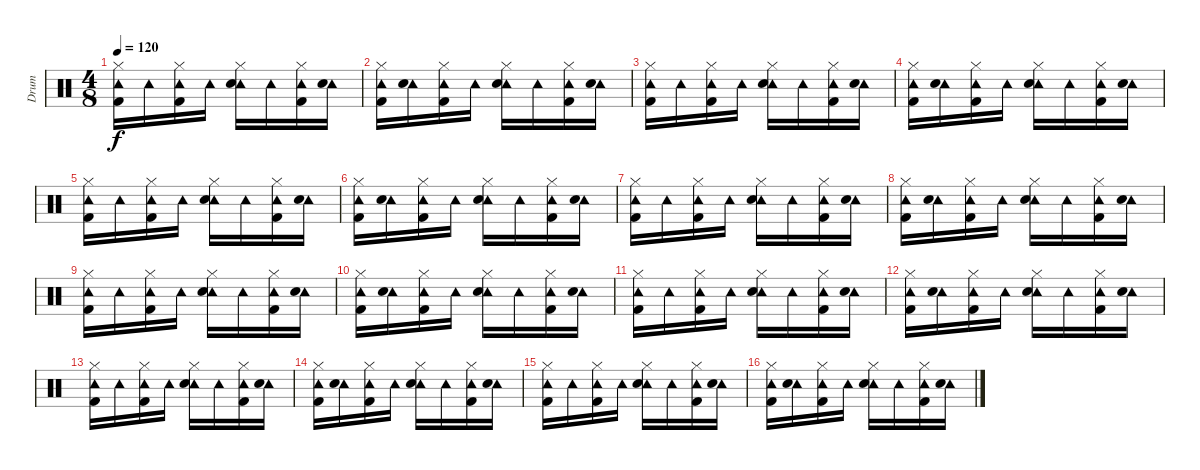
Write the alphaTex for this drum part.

\track ("Drum" "Drum") {instrument percussion}
\staff {score}
\articulation defaults
\ts (4 8)
\tempo 120
\clef neutral
\ks c
("Hi-Hat (closed)" "Tambourine (hit)" "Kick (hit) 2").16{dy f} "Tambourine (hit)".16 ("Hi-Hat (closed)" "Tambourine (hit)" "Kick (hit) 2").16 "Tambourine (hit)".16 ("Hi-Hat (closed)" "Tambourine (hit)" "Electric Snare (hit)").16 "Tambourine (hit)".16 ("Hi-Hat (closed)" "Tambourine (hit)" "Kick (hit) 2").16 ("Tambourine (hit)" "Electric Snare (hit)").16 |
("Hi-Hat (closed)" "Tambourine (hit)" "Kick (hit) 2").16 ("Tambourine (hit)" "Electric Snare (hit)").16 ("Hi-Hat (closed)" "Tambourine (hit)" "Kick (hit) 2").16 "Tambourine (hit)".16 ("Hi-Hat (closed)" "Tambourine (hit)" "Electric Snare (hit)").16 "Tambourine (hit)".16 ("Hi-Hat (closed)" "Tambourine (hit)" "Kick (hit) 2").16 ("Tambourine (hit)" "Electric Snare (hit)").16 |
("Hi-Hat (closed)" "Tambourine (hit)" "Kick (hit) 2").16 "Tambourine (hit)".16 ("Hi-Hat (closed)" "Tambourine (hit)" "Kick (hit) 2").16 "Tambourine (hit)".16 ("Hi-Hat (closed)" "Tambourine (hit)" "Electric Snare (hit)").16 "Tambourine (hit)".16 ("Hi-Hat (closed)" "Tambourine (hit)" "Kick (hit) 2").16 ("Tambourine (hit)" "Electric Snare (hit)").16 |
("Hi-Hat (closed)" "Tambourine (hit)" "Kick (hit) 2").16 ("Tambourine (hit)" "Electric Snare (hit)").16 ("Hi-Hat (closed)" "Tambourine (hit)" "Kick (hit) 2").16 "Tambourine (hit)".16 ("Hi-Hat (closed)" "Tambourine (hit)" "Electric Snare (hit)").16 "Tambourine (hit)".16 ("Hi-Hat (closed)" "Tambourine (hit)" "Kick (hit) 2").16 ("Tambourine (hit)" "Electric Snare (hit)").16 |
("Hi-Hat (closed)" "Tambourine (hit)" "Kick (hit) 2").16 "Tambourine (hit)".16 ("Hi-Hat (closed)" "Tambourine (hit)" "Kick (hit) 2").16 "Tambourine (hit)".16 ("Hi-Hat (closed)" "Tambourine (hit)" "Electric Snare (hit)").16 "Tambourine (hit)".16 ("Hi-Hat (closed)" "Tambourine (hit)" "Kick (hit) 2").16 ("Tambourine (hit)" "Electric Snare (hit)").16 |
("Hi-Hat (closed)" "Tambourine (hit)" "Kick (hit) 2").16 ("Tambourine (hit)" "Electric Snare (hit)").16 ("Hi-Hat (closed)" "Tambourine (hit)" "Kick (hit) 2").16 "Tambourine (hit)".16 ("Hi-Hat (closed)" "Tambourine (hit)" "Electric Snare (hit)").16 "Tambourine (hit)".16 ("Hi-Hat (closed)" "Tambourine (hit)" "Kick (hit) 2").16 ("Tambourine (hit)" "Electric Snare (hit)").16 |
("Hi-Hat (closed)" "Tambourine (hit)" "Kick (hit) 2").16 "Tambourine (hit)".16 ("Hi-Hat (closed)" "Tambourine (hit)" "Kick (hit) 2").16 "Tambourine (hit)".16 ("Hi-Hat (closed)" "Tambourine (hit)" "Electric Snare (hit)").16 "Tambourine (hit)".16 ("Hi-Hat (closed)" "Tambourine (hit)" "Kick (hit) 2").16 ("Tambourine (hit)" "Electric Snare (hit)").16 |
("Hi-Hat (closed)" "Tambourine (hit)" "Kick (hit) 2").16 ("Tambourine (hit)" "Electric Snare (hit)").16 ("Hi-Hat (closed)" "Tambourine (hit)" "Kick (hit) 2").16 "Tambourine (hit)".16 ("Hi-Hat (closed)" "Tambourine (hit)" "Electric Snare (hit)").16 "Tambourine (hit)".16 ("Hi-Hat (closed)" "Tambourine (hit)" "Kick (hit) 2").16 ("Tambourine (hit)" "Electric Snare (hit)").16 |
("Hi-Hat (closed)" "Tambourine (hit)" "Kick (hit) 2").16 "Tambourine (hit)".16 ("Hi-Hat (closed)" "Tambourine (hit)" "Kick (hit) 2").16 "Tambourine (hit)".16 ("Hi-Hat (closed)" "Tambourine (hit)" "Electric Snare (hit)").16 "Tambourine (hit)".16 ("Hi-Hat (closed)" "Tambourine (hit)" "Kick (hit) 2").16 ("Tambourine (hit)" "Electric Snare (hit)").16 |
("Hi-Hat (closed)" "Tambourine (hit)" "Kick (hit) 2").16 ("Tambourine (hit)" "Electric Snare (hit)").16 ("Hi-Hat (closed)" "Tambourine (hit)" "Kick (hit) 2").16 "Tambourine (hit)".16 ("Hi-Hat (closed)" "Tambourine (hit)" "Electric Snare (hit)").16 "Tambourine (hit)".16 ("Hi-Hat (closed)" "Tambourine (hit)" "Kick (hit) 2").16 ("Tambourine (hit)" "Electric Snare (hit)").16 |
("Hi-Hat (closed)" "Tambourine (hit)" "Kick (hit) 2").16 "Tambourine (hit)".16 ("Hi-Hat (closed)" "Tambourine (hit)" "Kick (hit) 2").16 "Tambourine (hit)".16 ("Hi-Hat (closed)" "Tambourine (hit)" "Electric Snare (hit)").16 "Tambourine (hit)".16 ("Hi-Hat (closed)" "Tambourine (hit)" "Kick (hit) 2").16 ("Tambourine (hit)" "Electric Snare (hit)").16 |
("Hi-Hat (closed)" "Tambourine (hit)" "Kick (hit) 2").16 ("Tambourine (hit)" "Electric Snare (hit)").16 ("Hi-Hat (closed)" "Tambourine (hit)" "Kick (hit) 2").16 "Tambourine (hit)".16 ("Hi-Hat (closed)" "Tambourine (hit)" "Electric Snare (hit)").16 "Tambourine (hit)".16 ("Hi-Hat (closed)" "Tambourine (hit)" "Kick (hit) 2").16 ("Tambourine (hit)" "Electric Snare (hit)").16 |
("Hi-Hat (closed)" "Tambourine (hit)" "Kick (hit) 2").16 "Tambourine (hit)".16 ("Hi-Hat (closed)" "Tambourine (hit)" "Kick (hit) 2").16 "Tambourine (hit)".16 ("Hi-Hat (closed)" "Tambourine (hit)" "Electric Snare (hit)").16 "Tambourine (hit)".16 ("Hi-Hat (closed)" "Tambourine (hit)" "Kick (hit) 2").16 ("Tambourine (hit)" "Electric Snare (hit)").16 |
("Hi-Hat (closed)" "Tambourine (hit)" "Kick (hit) 2").16 ("Tambourine (hit)" "Electric Snare (hit)").16 ("Hi-Hat (closed)" "Tambourine (hit)" "Kick (hit) 2").16 "Tambourine (hit)".16 ("Hi-Hat (closed)" "Tambourine (hit)" "Electric Snare (hit)").16 "Tambourine (hit)".16 ("Hi-Hat (closed)" "Tambourine (hit)" "Kick (hit) 2").16 ("Tambourine (hit)" "Electric Snare (hit)").16 |
("Hi-Hat (closed)" "Tambourine (hit)" "Kick (hit) 2").16 "Tambourine (hit)".16 ("Hi-Hat (closed)" "Tambourine (hit)" "Kick (hit) 2").16 "Tambourine (hit)".16 ("Hi-Hat (closed)" "Tambourine (hit)" "Electric Snare (hit)").16 "Tambourine (hit)".16 ("Hi-Hat (closed)" "Tambourine (hit)" "Kick (hit) 2").16 ("Tambourine (hit)" "Electric Snare (hit)").16 |
("Hi-Hat (closed)" "Tambourine (hit)" "Kick (hit) 2").16 ("Tambourine (hit)" "Electric Snare (hit)").16 ("Hi-Hat (closed)" "Tambourine (hit)" "Kick (hit) 2").16 "Tambourine (hit)".16 ("Hi-Hat (closed)" "Tambourine (hit)" "Electric Snare (hit)").16 "Tambourine (hit)".16 ("Hi-Hat (closed)" "Tambourine (hit)" "Kick (hit) 2").16 ("Tambourine (hit)" "Electric Snare (hit)").16
